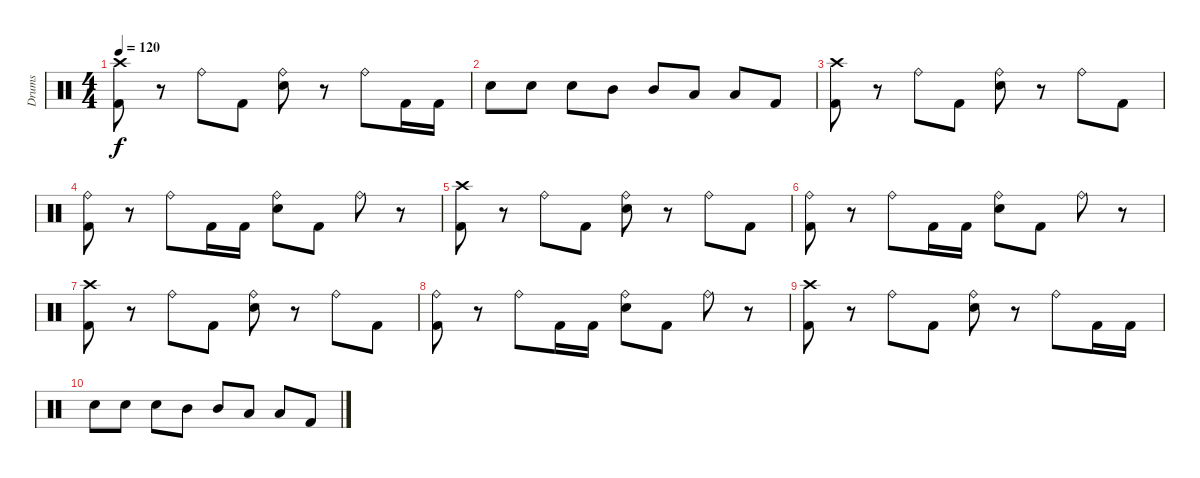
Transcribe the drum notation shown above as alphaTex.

\track ("Drums" "Drums") {instrument percussion}
\staff {score}
\articulation defaults
\ts (4 4)
\tempo 120
\clef neutral
\ks c
("Crash high (hit)" "Kick (hit) 2").8{dy f} r.8 "Ride (bell)".8 "Kick (hit) 2".8 ("Ride (bell)" "Electric Snare (hit)").8 r.8 "Ride (bell)".8 "Kick (hit) 2".16 "Kick (hit) 2".16 |
"Electric Snare (hit)".8 "Electric Snare (hit)".8 "Electric Snare (hit)".8 "Mid Tom (hit)".8 "Mid Tom (hit)".8 "Low Tom (hit)".8 "Low Tom (hit)".8 "Kick (hit) 2".8 |
("Crash high (hit)" "Kick (hit) 2").8{volume 7} r.8 "Ride (bell)".8 "Kick (hit) 2".8 ("Ride (bell)" "Electric Snare (hit)").8 r.8 "Ride (bell)".8 "Kick (hit) 2".8 |
("Ride (bell)" "Kick (hit) 2").8 r.8 "Ride (bell)".8 "Kick (hit) 2".16 "Kick (hit) 2".16 ("Ride (bell)" "Electric Snare (hit)").8 "Kick (hit) 2".8 "Ride (bell)".8 r.8 |
("Crash high (hit)" "Kick (hit) 2").8 r.8 "Ride (bell)".8 "Kick (hit) 2".8 ("Ride (bell)" "Electric Snare (hit)").8 r.8 "Ride (bell)".8 "Kick (hit) 2".8 |
("Ride (bell)" "Kick (hit) 2").8{volume 2} r.8 "Ride (bell)".8 "Kick (hit) 2".16 "Kick (hit) 2".16 ("Ride (bell)" "Electric Snare (hit)").8 "Kick (hit) 2".8 "Ride (bell)".8 r.8 |
("Crash high (hit)" "Kick (hit) 2").8 r.8 "Ride (bell)".8 "Kick (hit) 2".8 ("Ride (bell)" "Electric Snare (hit)").8 r.8 "Ride (bell)".8 "Kick (hit) 2".8 |
("Ride (bell)" "Kick (hit) 2").8 r.8 "Ride (bell)".8 "Kick (hit) 2".16 "Kick (hit) 2".16 ("Ride (bell)" "Electric Snare (hit)").8 "Kick (hit) 2".8 "Ride (bell)".8 r.8 |
("Crash high (hit)" "Kick (hit) 2").8 r.8 "Ride (bell)".8 "Kick (hit) 2".8 ("Ride (bell)" "Electric Snare (hit)").8 r.8 "Ride (bell)".8 "Kick (hit) 2".16 "Kick (hit) 2".16 |
"Electric Snare (hit)".8 "Electric Snare (hit)".8 "Electric Snare (hit)".8 "Mid Tom (hit)".8 "Mid Tom (hit)".8 "Low Tom (hit)".8 "Low Tom (hit)".8 "Kick (hit) 2".8
